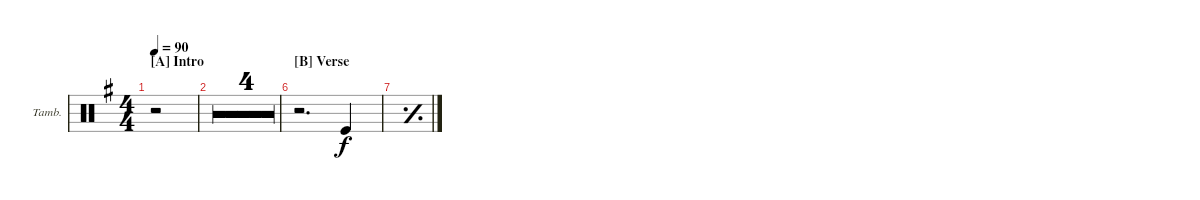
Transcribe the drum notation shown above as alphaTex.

\defaultSystemsLayout 4
\bracketExtendMode groupsimilarinstruments
\firstSystemTrackNameOrientation horizontal
\otherSystemsTrackNameOrientation horizontal
\track ("Tambourine" "Tamb.") {multiBarRest instrument percussion}
\staff {score}
\articulation defaults
\ts (4 4)
\section ("A" "Intro")
\ac
\tempo 90
\clef neutral
\ks g
r.2{dy f} |
r.1 |
r.1 |
r.1 |
r.1 |
\section ("B" "Verse")
\scale
0.34557 r.2{d} "Kick (hit)".4 |
\simile simple
\scale
0.217966 |
\scale
0.21548 |
\scale
0.220886
